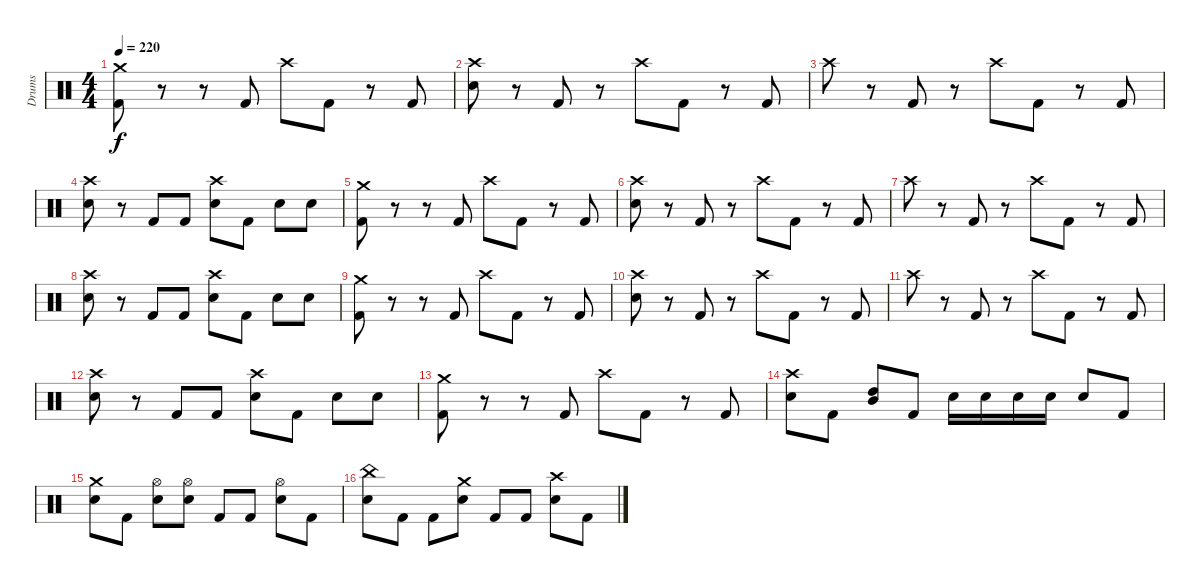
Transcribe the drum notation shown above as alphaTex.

\track ("Drums" "Drums") {instrument percussion}
\staff {score}
\articulation defaults
\ts (4 4)
\tempo 220
\clef neutral
\ks c
("Crash medium (hit)" "Kick (hit) 2").8{dy f} r.8 r.8 "Kick (hit) 2".8 "Crash high (hit)".8 "Kick (hit) 2".8 r.8 "Kick (hit) 2".8 |
("Crash high (hit)" "Electric Snare (hit)").8 r.8 "Kick (hit) 2".8 r.8 "Crash high (hit)".8 "Kick (hit) 2".8 r.8 "Kick (hit) 2".8 |
"Crash high (hit)".8 r.8 "Kick (hit) 2".8 r.8 "Crash high (hit)".8 "Kick (hit) 2".8 r.8 "Kick (hit) 2".8 |
("Crash high (hit)" "Electric Snare (hit)").8 r.8 "Kick (hit) 2".8 "Kick (hit) 2".8 ("Crash high (hit)" "Electric Snare (hit)").8 "Kick (hit) 2".8 "Electric Snare (hit)".8 "Electric Snare (hit)".8 |
("Crash medium (hit)" "Kick (hit) 2").8 r.8 r.8 "Kick (hit) 2".8 "Crash high (hit)".8 "Kick (hit) 2".8 r.8 "Kick (hit) 2".8 |
("Crash high (hit)" "Electric Snare (hit)").8 r.8 "Kick (hit) 2".8 r.8 "Crash high (hit)".8 "Kick (hit) 2".8 r.8 "Kick (hit) 2".8 |
"Crash high (hit)".8 r.8 "Kick (hit) 2".8 r.8 "Crash high (hit)".8 "Kick (hit) 2".8 r.8 "Kick (hit) 2".8 |
("Crash high (hit)" "Electric Snare (hit)").8 r.8 "Kick (hit) 2".8 "Kick (hit) 2".8 ("Crash high (hit)" "Electric Snare (hit)").8 "Kick (hit) 2".8 "Electric Snare (hit)".8 "Electric Snare (hit)".8 |
("Crash medium (hit)" "Kick (hit) 2").8 r.8 r.8 "Kick (hit) 2".8 "Crash high (hit)".8 "Kick (hit) 2".8 r.8 "Kick (hit) 2".8 |
("Crash high (hit)" "Electric Snare (hit)").8 r.8 "Kick (hit) 2".8 r.8 "Crash high (hit)".8 "Kick (hit) 2".8 r.8 "Kick (hit) 2".8 |
"Crash high (hit)".8 r.8 "Kick (hit) 2".8 r.8 "Crash high (hit)".8 "Kick (hit) 2".8 r.8 "Kick (hit) 2".8 |
("Crash high (hit)" "Electric Snare (hit)").8 r.8 "Kick (hit) 2".8 "Kick (hit) 2".8 ("Crash high (hit)" "Electric Snare (hit)").8 "Kick (hit) 2".8 "Electric Snare (hit)".8 "Electric Snare (hit)".8 |
("Crash medium (hit)" "Kick (hit) 2").8 r.8 r.8 "Kick (hit) 2".8 "Crash high (hit)".8 "Kick (hit) 2".8 r.8 "Kick (hit) 2".8 |
("Crash high (hit)" "Electric Snare (hit)").8 "Kick (hit) 2".8 ("Mid Tom (hit)" "High Tom (hit)").8 "Kick (hit) 2".8 "Electric Snare (hit)".16 "Electric Snare (hit)".16 "Electric Snare (hit)".16 "Electric Snare (hit)".16 "Electric Snare (hit)".8 "Kick (hit) 2".8 |
("Crash medium (hit)" "Electric Snare (hit)").8 "Kick (hit) 2".8 ("Hi-Hat (open)" "Electric Snare (hit)").8 ("Hi-Hat (open)" "Electric Snare (hit)").8 "Kick (hit) 2".8 "Kick (hit) 2".8 ("Hi-Hat (open)" "Electric Snare (hit)").8 "Kick (hit) 2".8 |
("China (hit)" "Electric Snare (hit)").8 "Kick (hit) 2".8 "Kick (hit) 2".8 ("Crash medium (hit)" "Electric Snare (hit)").8 "Kick (hit) 2".8 "Kick (hit) 2".8 ("Crash high (hit)" "Electric Snare (hit)").8 "Kick (hit) 2".8
